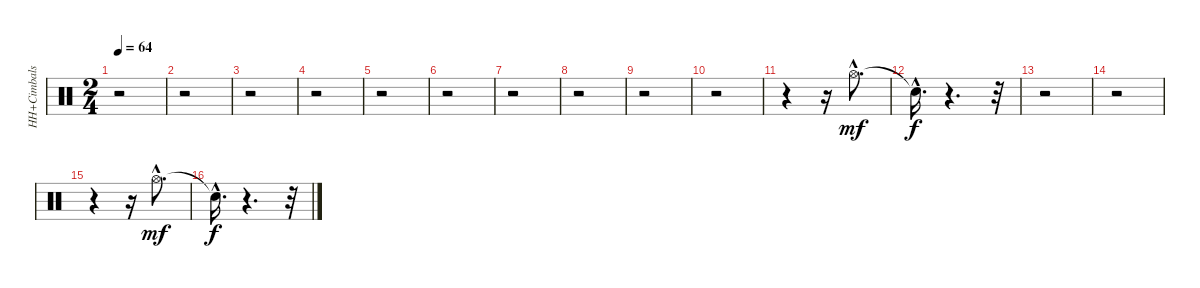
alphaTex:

\track ("HH+Cimbals" "HH+Cimbals") {instrument percussion}
\staff {score}
\articulation defaults
\ts (2 4)
\tempo 64
\clef neutral
\ks c
r.2{dy f} |
r.2 |
r.2 |
r.2 |
r.2 |
r.2 |
r.2 |
r.2 |
r.2 |
r.2 |
r.4 r.16 "Hi-Hat (open)"{hac}.8{d dy mf} |
"Snare (hit)"{hac t}.16{d dy f} r.4{d} r.32 |
r.2 |
r.2 |
r.4 r.16 "Hi-Hat (open)"{hac}.8{d dy mf} |
"Snare (hit)"{hac t}.16{d dy f} r.4{d} r.32
